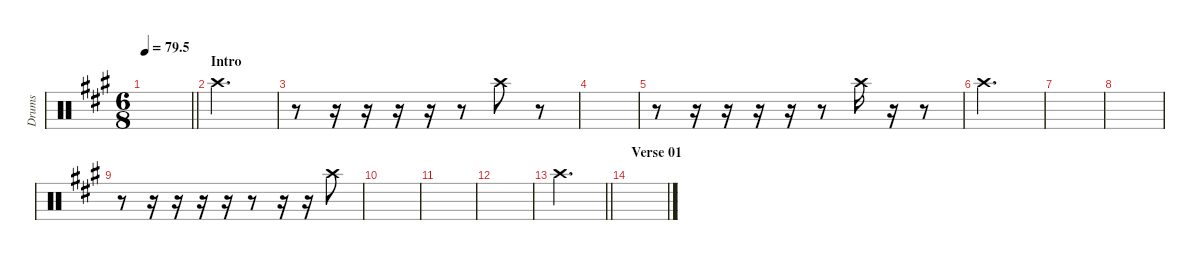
\defaultSystemsLayout 4
\hideDynamics
\bracketExtendMode nobrackets
\otherSystemsTrackNameOrientation horizontal
\track ("Left crash" "Drums") {instrument percussion}
\staff {score}
\articulation defaults
\ts (6 8)
\tempo
79.5
\accidentals auto
\clef neutral
\ottava regular
\simile none
\scale
0.474178
\barLineRight lightlight
\ks a
|
\section ("" "Intro")
\scale
0.262911 "Crash high (hit)"{acc forcenatural}.2{d} |
\scale
0.262911 r.8 r.16 r.16 r.16 r.16 r.8 "Crash high (hit)"{acc forcenatural}.8 r.8 |
\scale
0.333333 |
\scale
0.333333 r.8 r.16 r.16 r.16 r.16 r.8 "Crash high (hit)"{acc forcenatural}.16 r.16 r.8 |
\scale
0.333333 "Crash high (hit)"{acc forcenatural}.2{d} |
\scale
0.333333 |
\scale
0.333333 |
\scale
0.333333 r.8 r.16 r.16 r.16 r.16 r.8 r.16 r.16 "Crash high (hit)"{acc forcenatural}.8 |
\scale
0.333333 |
\scale
0.333333 |
\scale
0.333333 |
\scale
0.333333
\barLineRight lightlight "Crash high (hit)"{acc forcenatural}.2{d}
|
\section ("" "Verse 01")
\scale
0.333333 |
\scale
0.333333 |
\scale
0.333333
